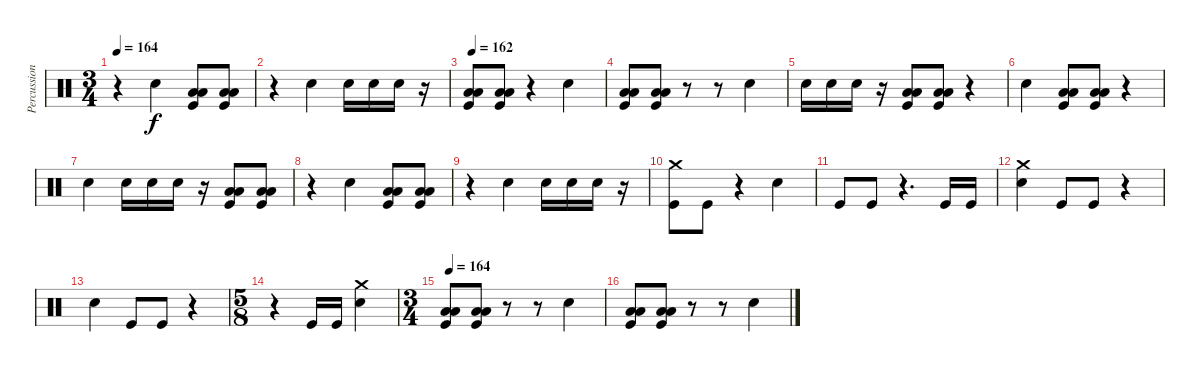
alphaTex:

\track ("Percussion" "Percussion") {instrument percussion}
\staff {score}
\articulation defaults
\ts (3 4)
\tempo 164
\clef neutral
\ks c
r.4{dy f} "Electric Snare (hit)".4 ("Kick (hit)" "Low Floor Tom (hit)" "Low Floor Tom (hit)").8 ("Kick (hit)" "Low Floor Tom (hit)" "Low Floor Tom (hit)").8 |
r.4 "Electric Snare (hit)".4 "Electric Snare (hit)".16 "Electric Snare (hit)".16 "Electric Snare (hit)".16 r.16 |
\tempo 162
("Kick (hit)" "Low Floor Tom (hit)" "Low Floor Tom (hit)").8 ("Kick (hit)" "Low Floor Tom (hit)" "Low Floor Tom (hit)").8 r.4 "Electric Snare (hit)".4 |
("Kick (hit)" "Low Floor Tom (hit)" "Low Floor Tom (hit)").8 ("Kick (hit)" "Low Floor Tom (hit)" "Low Floor Tom (hit)").8 r.8 r.8 "Electric Snare (hit)".4 |
"Electric Snare (hit)".16 "Electric Snare (hit)".16 "Electric Snare (hit)".16 r.16 ("Kick (hit)" "Low Floor Tom (hit)" "Low Floor Tom (hit)").8 ("Kick (hit)" "Low Floor Tom (hit)" "Low Floor Tom (hit)").8 r.4 |
"Electric Snare (hit)".4 ("Kick (hit)" "Low Floor Tom (hit)" "Low Floor Tom (hit)").8 ("Kick (hit)" "Low Floor Tom (hit)" "Low Floor Tom (hit)").8 r.4 |
"Electric Snare (hit)".4 "Electric Snare (hit)".16 "Electric Snare (hit)".16 "Electric Snare (hit)".16 r.16 ("Kick (hit)" "Low Floor Tom (hit)" "Low Floor Tom (hit)").8 ("Kick (hit)" "Low Floor Tom (hit)" "Low Floor Tom (hit)").8 |
r.4 "Electric Snare (hit)".4 ("Kick (hit)" "Low Floor Tom (hit)" "Low Floor Tom (hit)").8 ("Kick (hit)" "Low Floor Tom (hit)" "Low Floor Tom (hit)").8 |
r.4 "Electric Snare (hit)".4 "Electric Snare (hit)".16 "Electric Snare (hit)".16 "Electric Snare (hit)".16 r.16 |
("Kick (hit)" "Crash medium (hit)").8 "Kick (hit)".8 r.4 "Electric Snare (hit)".4 |
"Kick (hit)".8 "Kick (hit)".8 r.4{d} "Kick (hit)".16 "Kick (hit)".16 |
("Electric Snare (hit)" "Crash medium (hit)").4 "Kick (hit)".8 "Kick (hit)".8 r.4 |
"Electric Snare (hit)".4 "Kick (hit)".8 "Kick (hit)".8 r.4 |
\ts (5 8)
r.4 "Kick (hit)".16 "Kick (hit)".16 ("Electric Snare (hit)" "Crash medium (hit)").4 |
\ts (3 4)
\tempo 164
("Kick (hit)" "Low Floor Tom (hit)" "Low Floor Tom (hit)").8 ("Kick (hit)" "Low Floor Tom (hit)" "Low Floor Tom (hit)").8 r.8 r.8 "Electric Snare (hit)".4 |
("Kick (hit)" "Low Floor Tom (hit)" "Low Floor Tom (hit)").8 ("Kick (hit)" "Low Floor Tom (hit)" "Low Floor Tom (hit)").8 r.8 r.8 "Electric Snare (hit)".4
